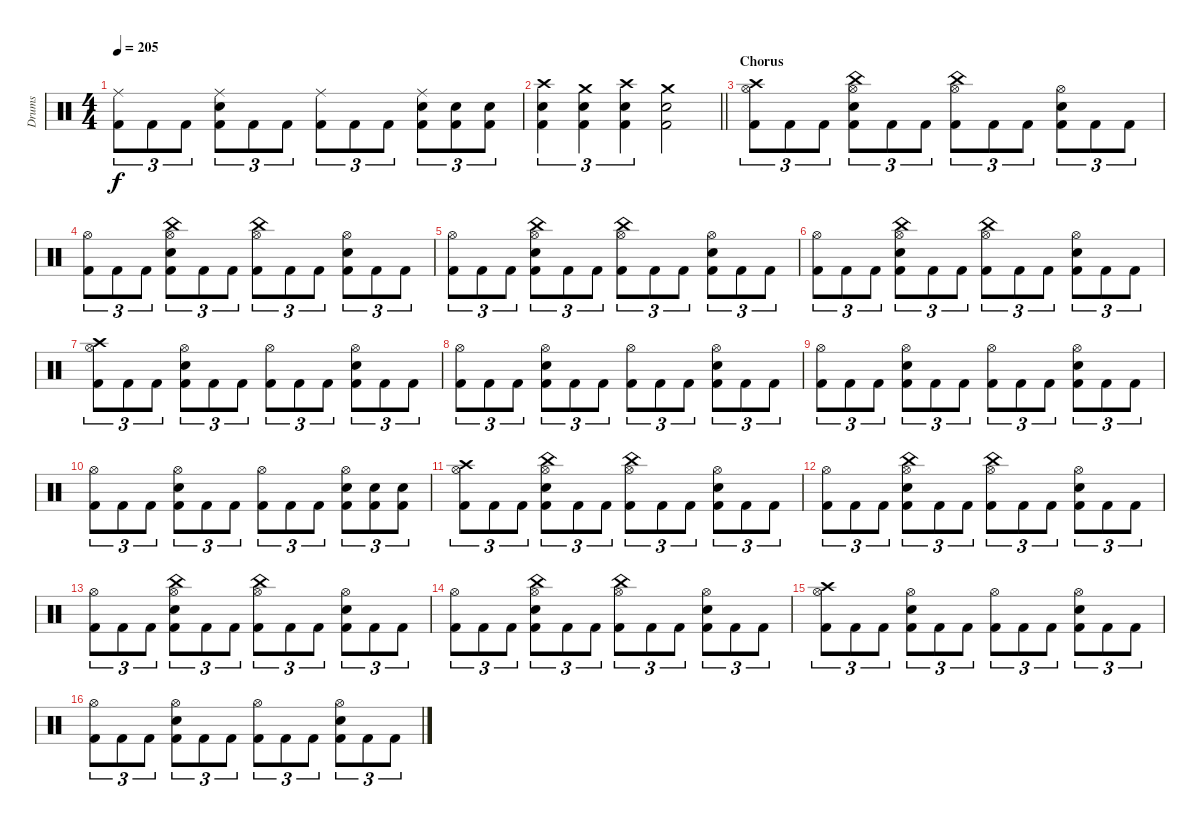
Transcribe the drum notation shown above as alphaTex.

\track ("Drums" "Drums") {instrument percussion}
\staff {score}
\articulation defaults
\ts (4 4)
\tempo 205
\clef neutral
\ks c
("Ride (middle)" "Kick (hit) 2").8{tu (3 2) dy f} "Kick (hit) 2".8{tu (3 2)} "Kick (hit) 2".8{tu (3 2)} ("Ride (middle)" "Snare (hit) 2" "Kick (hit) 2").8{tu (3 2)} "Kick (hit) 2".8{tu (3 2)} "Kick (hit) 2".8{tu (3 2)} ("Ride (middle)" "Kick (hit) 2").8{tu (3 2)} "Kick (hit) 2".8{tu (3 2)} "Kick (hit) 2".8{tu (3 2)} ("Ride (middle)" "Snare (hit) 2" "Kick (hit) 2").8{tu (3 2)} ("Snare (hit) 2" "Kick (hit) 2").8{tu (3 2)} ("Snare (hit) 2" "Kick (hit) 2").8{tu (3 2)} |
\barLineRight lightlight
("Crash high (hit)" "Snare (hit) 2" "Kick (hit) 2").4{tu (3 2)} ("Crash medium (hit)" "Snare (hit) 2" "Kick (hit) 2").4{tu (3 2)} ("Crash high (hit)" "Snare (hit) 2" "Kick (hit) 2").4{tu (3 2)} ("Crash medium (hit)" "Snare (hit) 2" "Kick (hit) 2").2 |
\section ("" "Chorus")
("Crash high (hit)" "Hi-Hat (open)" "Kick (hit) 2").8{tu (3 2)} "Kick (hit) 2".8{tu (3 2)} "Kick (hit) 2".8{tu (3 2)} ("China (hit)" "Hi-Hat (open)" "Snare (hit) 2" "Kick (hit) 2").8{tu (3 2)} "Kick (hit) 2".8{tu (3 2)} "Kick (hit) 2".8{tu (3 2)} ("China (hit)" "Hi-Hat (open)" "Kick (hit) 2").8{tu (3 2)} "Kick (hit) 2".8{tu (3 2)} "Kick (hit) 2".8{tu (3 2)} ("Hi-Hat (open)" "Snare (hit) 2" "Kick (hit) 2").8{tu (3 2)} "Kick (hit) 2".8{tu (3 2)} "Kick (hit) 2".8{tu (3 2)} |
("Hi-Hat (open)" "Kick (hit) 2").8{tu (3 2)} "Kick (hit) 2".8{tu (3 2)} "Kick (hit) 2".8{tu (3 2)} ("China (hit)" "Hi-Hat (open)" "Snare (hit) 2" "Kick (hit) 2").8{tu (3 2)} "Kick (hit) 2".8{tu (3 2)} "Kick (hit) 2".8{tu (3 2)} ("China (hit)" "Hi-Hat (open)" "Kick (hit) 2").8{tu (3 2)} "Kick (hit) 2".8{tu (3 2)} "Kick (hit) 2".8{tu (3 2)} ("Hi-Hat (open)" "Snare (hit) 2" "Kick (hit) 2").8{tu (3 2)} "Kick (hit) 2".8{tu (3 2)} "Kick (hit) 2".8{tu (3 2)} |
("Hi-Hat (open)" "Kick (hit) 2").8{tu (3 2)} "Kick (hit) 2".8{tu (3 2)} "Kick (hit) 2".8{tu (3 2)} ("China (hit)" "Hi-Hat (open)" "Snare (hit) 2" "Kick (hit) 2").8{tu (3 2)} "Kick (hit) 2".8{tu (3 2)} "Kick (hit) 2".8{tu (3 2)} ("China (hit)" "Hi-Hat (open)" "Kick (hit) 2").8{tu (3 2)} "Kick (hit) 2".8{tu (3 2)} "Kick (hit) 2".8{tu (3 2)} ("Hi-Hat (open)" "Snare (hit) 2" "Kick (hit) 2").8{tu (3 2)} "Kick (hit) 2".8{tu (3 2)} "Kick (hit) 2".8{tu (3 2)} |
("Hi-Hat (open)" "Kick (hit) 2").8{tu (3 2)} "Kick (hit) 2".8{tu (3 2)} "Kick (hit) 2".8{tu (3 2)} ("China (hit)" "Hi-Hat (open)" "Snare (hit) 2" "Kick (hit) 2").8{tu (3 2)} "Kick (hit) 2".8{tu (3 2)} "Kick (hit) 2".8{tu (3 2)} ("China (hit)" "Hi-Hat (open)" "Kick (hit) 2").8{tu (3 2)} "Kick (hit) 2".8{tu (3 2)} "Kick (hit) 2".8{tu (3 2)} ("Hi-Hat (open)" "Snare (hit) 2" "Kick (hit) 2").8{tu (3 2)} "Kick (hit) 2".8{tu (3 2)} "Kick (hit) 2".8{tu (3 2)} |
("Crash high (hit)" "Hi-Hat (open)" "Kick (hit) 2").8{tu (3 2)} "Kick (hit) 2".8{tu (3 2)} "Kick (hit) 2".8{tu (3 2)} ("Hi-Hat (open)" "Snare (hit) 2" "Kick (hit) 2").8{tu (3 2)} "Kick (hit) 2".8{tu (3 2)} "Kick (hit) 2".8{tu (3 2)} ("Hi-Hat (open)" "Kick (hit) 2").8{tu (3 2)} "Kick (hit) 2".8{tu (3 2)} "Kick (hit) 2".8{tu (3 2)} ("Hi-Hat (open)" "Snare (hit) 2" "Kick (hit) 2").8{tu (3 2)} "Kick (hit) 2".8{tu (3 2)} "Kick (hit) 2".8{tu (3 2)} |
("Hi-Hat (open)" "Kick (hit) 2").8{tu (3 2)} "Kick (hit) 2".8{tu (3 2)} "Kick (hit) 2".8{tu (3 2)} ("Hi-Hat (open)" "Snare (hit) 2" "Kick (hit) 2").8{tu (3 2)} "Kick (hit) 2".8{tu (3 2)} "Kick (hit) 2".8{tu (3 2)} ("Hi-Hat (open)" "Kick (hit) 2").8{tu (3 2)} "Kick (hit) 2".8{tu (3 2)} "Kick (hit) 2".8{tu (3 2)} ("Hi-Hat (open)" "Snare (hit) 2" "Kick (hit) 2").8{tu (3 2)} "Kick (hit) 2".8{tu (3 2)} "Kick (hit) 2".8{tu (3 2)} |
("Hi-Hat (open)" "Kick (hit) 2").8{tu (3 2)} "Kick (hit) 2".8{tu (3 2)} "Kick (hit) 2".8{tu (3 2)} ("Hi-Hat (open)" "Snare (hit) 2" "Kick (hit) 2").8{tu (3 2)} "Kick (hit) 2".8{tu (3 2)} "Kick (hit) 2".8{tu (3 2)} ("Hi-Hat (open)" "Kick (hit) 2").8{tu (3 2)} "Kick (hit) 2".8{tu (3 2)} "Kick (hit) 2".8{tu (3 2)} ("Hi-Hat (open)" "Snare (hit) 2" "Kick (hit) 2").8{tu (3 2)} "Kick (hit) 2".8{tu (3 2)} "Kick (hit) 2".8{tu (3 2)} |
("Hi-Hat (open)" "Kick (hit) 2").8{tu (3 2)} "Kick (hit) 2".8{tu (3 2)} "Kick (hit) 2".8{tu (3 2)} ("Hi-Hat (open)" "Snare (hit) 2" "Kick (hit) 2").8{tu (3 2)} "Kick (hit) 2".8{tu (3 2)} "Kick (hit) 2".8{tu (3 2)} ("Hi-Hat (open)" "Kick (hit) 2").8{tu (3 2)} "Kick (hit) 2".8{tu (3 2)} "Kick (hit) 2".8{tu (3 2)} ("Hi-Hat (open)" "Snare (hit) 2" "Kick (hit) 2").8{tu (3 2)} ("Snare (hit) 2" "Kick (hit) 2").8{tu (3 2)} ("Snare (hit) 2" "Kick (hit) 2").8{tu (3 2)} |
("Crash high (hit)" "Hi-Hat (open)" "Kick (hit) 2").8{tu (3 2)} "Kick (hit) 2".8{tu (3 2)} "Kick (hit) 2".8{tu (3 2)} ("China (hit)" "Hi-Hat (open)" "Snare (hit) 2" "Kick (hit) 2").8{tu (3 2)} "Kick (hit) 2".8{tu (3 2)} "Kick (hit) 2".8{tu (3 2)} ("China (hit)" "Hi-Hat (open)" "Kick (hit) 2").8{tu (3 2)} "Kick (hit) 2".8{tu (3 2)} "Kick (hit) 2".8{tu (3 2)} ("Hi-Hat (open)" "Snare (hit) 2" "Kick (hit) 2").8{tu (3 2)} "Kick (hit) 2".8{tu (3 2)} "Kick (hit) 2".8{tu (3 2)} |
("Hi-Hat (open)" "Kick (hit) 2").8{tu (3 2)} "Kick (hit) 2".8{tu (3 2)} "Kick (hit) 2".8{tu (3 2)} ("China (hit)" "Hi-Hat (open)" "Snare (hit) 2" "Kick (hit) 2").8{tu (3 2)} "Kick (hit) 2".8{tu (3 2)} "Kick (hit) 2".8{tu (3 2)} ("China (hit)" "Hi-Hat (open)" "Kick (hit) 2").8{tu (3 2)} "Kick (hit) 2".8{tu (3 2)} "Kick (hit) 2".8{tu (3 2)} ("Hi-Hat (open)" "Snare (hit) 2" "Kick (hit) 2").8{tu (3 2)} "Kick (hit) 2".8{tu (3 2)} "Kick (hit) 2".8{tu (3 2)} |
("Hi-Hat (open)" "Kick (hit) 2").8{tu (3 2)} "Kick (hit) 2".8{tu (3 2)} "Kick (hit) 2".8{tu (3 2)} ("China (hit)" "Hi-Hat (open)" "Snare (hit) 2" "Kick (hit) 2").8{tu (3 2)} "Kick (hit) 2".8{tu (3 2)} "Kick (hit) 2".8{tu (3 2)} ("China (hit)" "Hi-Hat (open)" "Kick (hit) 2").8{tu (3 2)} "Kick (hit) 2".8{tu (3 2)} "Kick (hit) 2".8{tu (3 2)} ("Hi-Hat (open)" "Snare (hit) 2" "Kick (hit) 2").8{tu (3 2)} "Kick (hit) 2".8{tu (3 2)} "Kick (hit) 2".8{tu (3 2)} |
("Hi-Hat (open)" "Kick (hit) 2").8{tu (3 2)} "Kick (hit) 2".8{tu (3 2)} "Kick (hit) 2".8{tu (3 2)} ("China (hit)" "Hi-Hat (open)" "Snare (hit) 2" "Kick (hit) 2").8{tu (3 2)} "Kick (hit) 2".8{tu (3 2)} "Kick (hit) 2".8{tu (3 2)} ("China (hit)" "Hi-Hat (open)" "Kick (hit) 2").8{tu (3 2)} "Kick (hit) 2".8{tu (3 2)} "Kick (hit) 2".8{tu (3 2)} ("Hi-Hat (open)" "Snare (hit) 2" "Kick (hit) 2").8{tu (3 2)} "Kick (hit) 2".8{tu (3 2)} "Kick (hit) 2".8{tu (3 2)} |
("Crash high (hit)" "Hi-Hat (open)" "Kick (hit) 2").8{tu (3 2)} "Kick (hit) 2".8{tu (3 2)} "Kick (hit) 2".8{tu (3 2)} ("Hi-Hat (open)" "Snare (hit) 2" "Kick (hit) 2").8{tu (3 2)} "Kick (hit) 2".8{tu (3 2)} "Kick (hit) 2".8{tu (3 2)} ("Hi-Hat (open)" "Kick (hit) 2").8{tu (3 2)} "Kick (hit) 2".8{tu (3 2)} "Kick (hit) 2".8{tu (3 2)} ("Hi-Hat (open)" "Snare (hit) 2" "Kick (hit) 2").8{tu (3 2)} "Kick (hit) 2".8{tu (3 2)} "Kick (hit) 2".8{tu (3 2)} |
("Hi-Hat (open)" "Kick (hit) 2").8{tu (3 2)} "Kick (hit) 2".8{tu (3 2)} "Kick (hit) 2".8{tu (3 2)} ("Hi-Hat (open)" "Snare (hit) 2" "Kick (hit) 2").8{tu (3 2)} "Kick (hit) 2".8{tu (3 2)} "Kick (hit) 2".8{tu (3 2)} ("Hi-Hat (open)" "Kick (hit) 2").8{tu (3 2)} "Kick (hit) 2".8{tu (3 2)} "Kick (hit) 2".8{tu (3 2)} ("Hi-Hat (open)" "Snare (hit) 2" "Kick (hit) 2").8{tu (3 2)} "Kick (hit) 2".8{tu (3 2)} "Kick (hit) 2".8{tu (3 2)}
